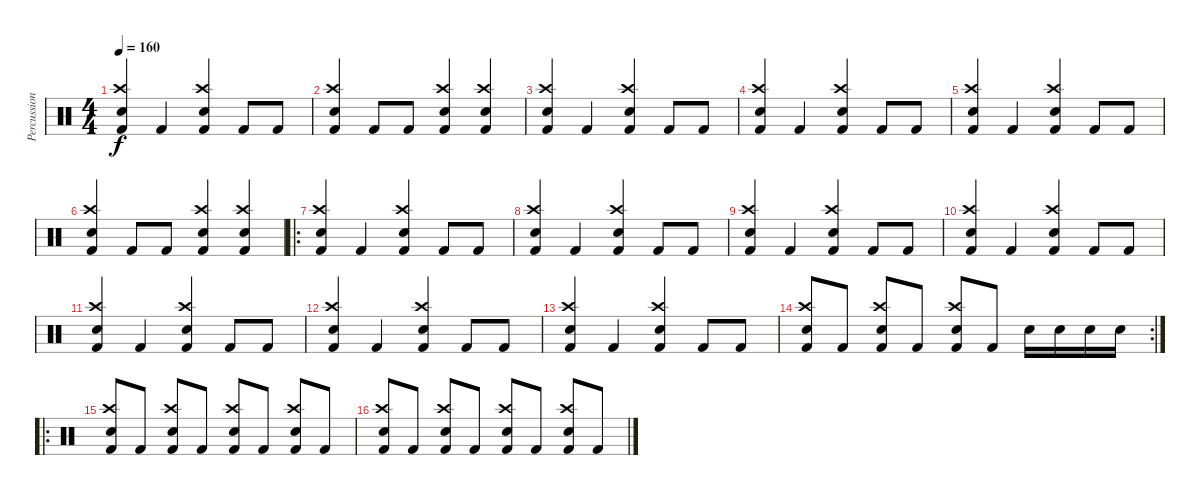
\track ("Percussions" "Percussion") {instrument percussion}
\staff {score}
\articulation defaults
\ts (4 4)
\tempo 160
\clef neutral
\ks c
("Kick (hit) 2" "Crash high (hit)" "Electric Snare (hit)").4{dy f} "Kick (hit) 2".4 ("Kick (hit) 2" "Crash high (hit)" "Electric Snare (hit)").4 "Kick (hit) 2".8 "Kick (hit) 2".8 |
("Electric Snare (hit)" "Kick (hit) 2" "Crash high (hit)").4 "Kick (hit) 2".8 "Kick (hit) 2".8 ("Kick (hit) 2" "Crash high (hit)" "Electric Snare (hit)").4 ("Kick (hit) 2" "Crash high (hit)" "Electric Snare (hit)").4 |
("Kick (hit) 2" "Crash high (hit)" "Electric Snare (hit)").4 "Kick (hit) 2".4 ("Kick (hit) 2" "Crash high (hit)" "Electric Snare (hit)").4 "Kick (hit) 2".8 "Kick (hit) 2".8 |
("Kick (hit) 2" "Crash high (hit)" "Electric Snare (hit)").4 "Kick (hit) 2".4 ("Kick (hit) 2" "Crash high (hit)" "Electric Snare (hit)").4 "Kick (hit) 2".8 "Kick (hit) 2".8 |
("Kick (hit) 2" "Crash high (hit)" "Electric Snare (hit)").4 "Kick (hit) 2".4 ("Kick (hit) 2" "Crash high (hit)" "Electric Snare (hit)").4 "Kick (hit) 2".8 "Kick (hit) 2".8 |
("Electric Snare (hit)" "Kick (hit) 2" "Crash high (hit)").4 "Kick (hit) 2".8 "Kick (hit) 2".8 ("Kick (hit) 2" "Crash high (hit)" "Electric Snare (hit)").4 ("Kick (hit) 2" "Crash high (hit)" "Electric Snare (hit)").4 |
\ro
("Crash high (hit)" "Kick (hit) 2" "Electric Snare (hit)").4 "Kick (hit) 2".4 ("Crash high (hit)" "Electric Snare (hit)" "Kick (hit) 2").4 "Kick (hit) 2".8 "Kick (hit) 2".8 |
("Crash high (hit)" "Kick (hit) 2" "Electric Snare (hit)").4 "Kick (hit) 2".4 ("Crash high (hit)" "Electric Snare (hit)" "Kick (hit) 2").4 "Kick (hit) 2".8 "Kick (hit) 2".8 |
("Crash high (hit)" "Kick (hit) 2" "Electric Snare (hit)").4 "Kick (hit) 2".4 ("Crash high (hit)" "Electric Snare (hit)" "Kick (hit) 2").4 "Kick (hit) 2".8 "Kick (hit) 2".8 |
("Crash high (hit)" "Kick (hit) 2" "Electric Snare (hit)").4 "Kick (hit) 2".4 ("Crash high (hit)" "Electric Snare (hit)" "Kick (hit) 2").4 "Kick (hit) 2".8 "Kick (hit) 2".8 |
("Crash high (hit)" "Kick (hit) 2" "Electric Snare (hit)").4 "Kick (hit) 2".4 ("Crash high (hit)" "Electric Snare (hit)" "Kick (hit) 2").4 "Kick (hit) 2".8 "Kick (hit) 2".8 |
("Crash high (hit)" "Kick (hit) 2" "Electric Snare (hit)").4 "Kick (hit) 2".4 ("Crash high (hit)" "Electric Snare (hit)" "Kick (hit) 2").4 "Kick (hit) 2".8 "Kick (hit) 2".8 |
("Crash high (hit)" "Kick (hit) 2" "Electric Snare (hit)").4 "Kick (hit) 2".4 ("Crash high (hit)" "Electric Snare (hit)" "Kick (hit) 2").4 "Kick (hit) 2".8 "Kick (hit) 2".8 |
\rc 2
("Electric Snare (hit)" "Crash high (hit)" "Kick (hit) 2").8 "Kick (hit) 2".8 ("Electric Snare (hit)" "Crash high (hit)" "Kick (hit) 2").8 "Kick (hit) 2".8 ("Electric Snare (hit)" "Crash high (hit)" "Kick (hit) 2").8 "Kick (hit) 2".8 "Electric Snare (hit)".16 "Electric Snare (hit)".16 "Electric Snare (hit)".16 "Electric Snare (hit)".16 |
\ro
("Electric Snare (hit)" "Crash high (hit)" "Kick (hit) 2").8 "Kick (hit) 2".8 ("Electric Snare (hit)" "Crash high (hit)" "Kick (hit) 2").8 "Kick (hit) 2".8 ("Electric Snare (hit)" "Crash high (hit)" "Kick (hit) 2").8 "Kick (hit) 2".8 ("Electric Snare (hit)" "Crash high (hit)" "Kick (hit) 2").8 "Kick (hit) 2".8 |
("Electric Snare (hit)" "Crash high (hit)" "Kick (hit) 2").8 "Kick (hit) 2".8 ("Electric Snare (hit)" "Crash high (hit)" "Kick (hit) 2").8 "Kick (hit) 2".8 ("Electric Snare (hit)" "Crash high (hit)" "Kick (hit) 2").8 "Kick (hit) 2".8 ("Electric Snare (hit)" "Crash high (hit)" "Kick (hit) 2").8 "Kick (hit) 2".8
